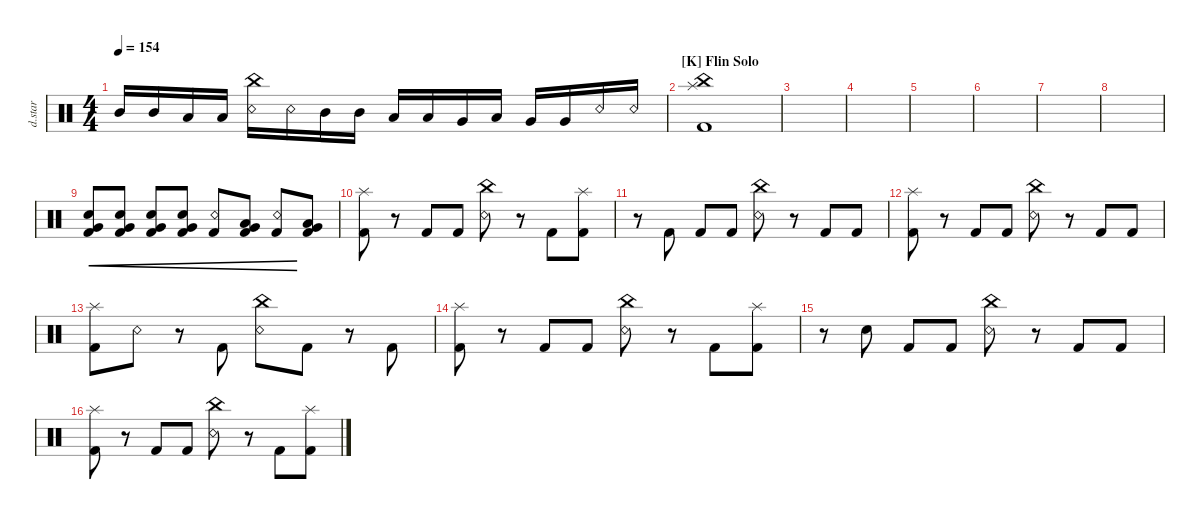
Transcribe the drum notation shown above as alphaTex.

\defaultSystemsLayout 4
\hideDynamics
\bracketExtendMode nobrackets
\otherSystemsTrackNameOrientation horizontal
\track ("Drumkit Star" "d.star") {instrument percussion}
\staff {score}
\articulation defaults
\ts (4 4)
\tempo 154
\clef neutral
\ks c "Mid Tom (hit)".16{dy ff beam Up} "Mid Tom (hit)".16{beam Up} "Low Tom (hit)".16{beam Up} "Low Tom (hit)".16{beam Up}
("Snare (rim shot)" "China (hit)").16{beam Down} "Snare (rim shot)".16{beam Down} "Mid Tom (hit)".16{beam Down} "Mid Tom (hit)".16{beam Down} "Low Tom (hit)".16{beam Up} "Low Tom (hit)".16{beam Up} "Very Low Tom (hit)".16{beam Up} "Low Tom (hit)".16{beam Up} "Very Low Tom (hit)".16{beam Up} "Very Low Tom (hit)".16{beam Up} "Snare (rim shot)".16{beam Up} "Snare (rim shot)".16{beam Up} |
\section ("K" "Flin Solo")
("Kick (hit) 2" "China (hit)" "Splash (hit)").1{beam Down} |
|
|
|
|
|
|
("Kick (hit) 2" "Snare (hit) 2" "Very Low Tom (hit)").8{cre dy p beam Up} ("Kick (hit) 2" "Snare (hit) 2" "Very Low Tom (hit)").8{cre beam Up} ("Kick (hit) 2" "Snare (hit) 2" "Very Low Tom (hit)").8{cre dy mp beam Up} ("Kick (hit) 2" "Snare (hit) 2" "Very Low Tom (hit)").8{cre beam Up} ("Kick (hit) 2" "Snare (rim shot)").8{cre dy mf beam Up} ("Kick (hit) 2" "Very Low Tom (hit)" "Low Tom (hit)").8{cre dy f beam Up} ("Kick (hit) 2" "Snare (rim shot)").8{cre beam Up} ("Kick (hit) 2" "Very Low Tom (hit)" "Low Tom (hit)").8{beam Up} |
("Kick (hit) 2" "Splash (hit)").8{dy ff beam Down} r.8{beam Down} "Kick (hit) 2".8{beam Up} "Kick (hit) 2".8{beam Up} ("Snare (rim shot)" "China (hit)").8{beam Down} r.8{beam Down} "Kick (hit) 2".8{beam Down} ("Kick (hit) 2" "Splash (hit)").8{beam Down} |
r.8{beam Down} "Kick (hit) 2".8{beam Up} "Kick (hit) 2".8{beam Up} "Kick (hit) 2".8{beam Up} ("Snare (rim shot)" "China (hit)").8{beam Down} r.8{beam Down} "Kick (hit) 2".8{beam Up} "Kick (hit) 2".8{beam Up} |
("Kick (hit) 2" "Splash (hit)").8{beam Down} r.8{beam Down} "Kick (hit) 2".8{beam Up} "Kick (hit) 2".8{beam Up} ("Snare (rim shot)" "China (hit)").8{beam Down} r.8{beam Down} "Kick (hit) 2".8{beam Up} "Kick (hit) 2".8{beam Up} |
("Kick (hit) 2" "Splash (hit)").8{beam Down} "Snare (rim shot)".8{beam Down} r.8{beam Down} "Kick (hit) 2".8{beam Up} ("Snare (rim shot)" "China (hit)").8{beam Down} "Kick (hit) 2".8{beam Down} r.8{beam Down} "Kick (hit) 2".8{beam Up} |
("Kick (hit) 2" "Splash (hit)").8{beam Down} r.8{beam Down} "Kick (hit) 2".8{beam Up} "Kick (hit) 2".8{beam Up} ("Snare (rim shot)" "China (hit)").8{beam Down} r.8{beam Down} "Kick (hit) 2".8{beam Down} ("Kick (hit) 2" "Splash (hit)").8{beam Down} |
r.8{beam Down} "Snare (hit) 2".8{dy mp beam Down} "Kick (hit) 2".8{dy ff beam Up} "Kick (hit) 2".8{beam Up} ("Snare (rim shot)" "China (hit)").8{beam Down} r.8{beam Down} "Kick (hit) 2".8{beam Up} "Kick (hit) 2".8{beam Up} |
("Kick (hit) 2" "Splash (hit)").8{beam Down} r.8{beam Down} "Kick (hit) 2".8{beam Up} "Kick (hit) 2".8{beam Up} ("Snare (rim shot)" "China (hit)").8{beam Down} r.8{beam Down} "Kick (hit) 2".8{beam Down} ("Kick (hit) 2" "Splash (hit)").8{beam Down}
